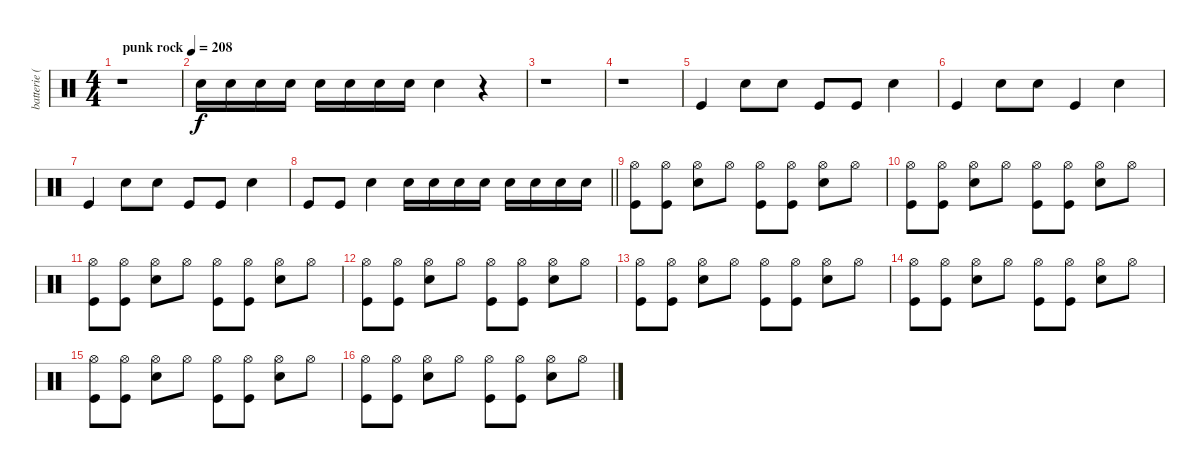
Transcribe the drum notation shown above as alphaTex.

\track ("batterie ( Guillaume ) " "batterie (") {instrument percussion}
\staff {score}
\articulation defaults
\ts (4 4)
\tempo (208 "punk rock")
\clef neutral
\ks c
r.1{dy f} |
"Electric Snare (hit)".16 "Electric Snare (hit)".16 "Electric Snare (hit)".16 "Electric Snare (hit)".16 "Electric Snare (hit)".16 "Electric Snare (hit)".16 "Electric Snare (hit)".16 "Electric Snare (hit)".16 "Electric Snare (hit)".4 r.4 |
r.1 |
r.1 |
"Kick (hit)".4 "Electric Snare (hit)".8 "Electric Snare (hit)".8 "Kick (hit)".8 "Kick (hit)".8 "Electric Snare (hit)".4 |
"Kick (hit)".4 "Electric Snare (hit)".8 "Electric Snare (hit)".8 "Kick (hit)".4 "Electric Snare (hit)".4 |
"Kick (hit)".4 "Electric Snare (hit)".8 "Electric Snare (hit)".8 "Kick (hit)".8 "Kick (hit)".8 "Electric Snare (hit)".4 |
\barLineRight lightlight "Kick (hit)".8 "Kick (hit)".8 "Electric Snare (hit)".4 "Electric Snare (hit)".16 "Electric Snare (hit)".16 "Electric Snare (hit)".16 "Electric Snare (hit)".16 "Electric Snare (hit)".16 "Electric Snare (hit)".16 "Electric Snare (hit)".16 "Electric Snare (hit)".16
|
("Hi-Hat (open)" "Kick (hit)").8 ("Hi-Hat (open)" "Kick (hit)").8 ("Hi-Hat (open)" "Electric Snare (hit)").8 "Hi-Hat (open)".8 ("Hi-Hat (open)" "Kick (hit)").8 ("Hi-Hat (open)" "Kick (hit)").8 ("Hi-Hat (open)" "Electric Snare (hit)").8 "Hi-Hat (open)".8 |
("Hi-Hat (open)" "Kick (hit)").8 ("Hi-Hat (open)" "Kick (hit)").8 ("Hi-Hat (open)" "Electric Snare (hit)").8 "Hi-Hat (open)".8 ("Hi-Hat (open)" "Kick (hit)").8 ("Hi-Hat (open)" "Kick (hit)").8 ("Hi-Hat (open)" "Electric Snare (hit)").8 "Hi-Hat (open)".8 |
("Hi-Hat (open)" "Kick (hit)").8 ("Hi-Hat (open)" "Kick (hit)").8 ("Hi-Hat (open)" "Electric Snare (hit)").8 "Hi-Hat (open)".8 ("Hi-Hat (open)" "Kick (hit)").8 ("Hi-Hat (open)" "Kick (hit)").8 ("Hi-Hat (open)" "Electric Snare (hit)").8 "Hi-Hat (open)".8 |
("Hi-Hat (open)" "Kick (hit)").8 ("Hi-Hat (open)" "Kick (hit)").8 ("Hi-Hat (open)" "Electric Snare (hit)").8 "Hi-Hat (open)".8 ("Hi-Hat (open)" "Kick (hit)").8 ("Hi-Hat (open)" "Kick (hit)").8 ("Hi-Hat (open)" "Electric Snare (hit)").8 "Hi-Hat (open)".8 |
("Hi-Hat (open)" "Kick (hit)").8 ("Hi-Hat (open)" "Kick (hit)").8 ("Hi-Hat (open)" "Electric Snare (hit)").8 "Hi-Hat (open)".8 ("Hi-Hat (open)" "Kick (hit)").8 ("Hi-Hat (open)" "Kick (hit)").8 ("Hi-Hat (open)" "Electric Snare (hit)").8 "Hi-Hat (open)".8 |
("Hi-Hat (open)" "Kick (hit)").8 ("Hi-Hat (open)" "Kick (hit)").8 ("Hi-Hat (open)" "Electric Snare (hit)").8 "Hi-Hat (open)".8 ("Hi-Hat (open)" "Kick (hit)").8 ("Hi-Hat (open)" "Kick (hit)").8 ("Hi-Hat (open)" "Electric Snare (hit)").8 "Hi-Hat (open)".8 |
("Hi-Hat (open)" "Kick (hit)").8 ("Hi-Hat (open)" "Kick (hit)").8 ("Hi-Hat (open)" "Electric Snare (hit)").8 "Hi-Hat (open)".8 ("Hi-Hat (open)" "Kick (hit)").8 ("Hi-Hat (open)" "Kick (hit)").8 ("Hi-Hat (open)" "Electric Snare (hit)").8 "Hi-Hat (open)".8 |
("Hi-Hat (open)" "Kick (hit)").8 ("Hi-Hat (open)" "Kick (hit)").8 ("Hi-Hat (open)" "Electric Snare (hit)").8 "Hi-Hat (open)".8 ("Hi-Hat (open)" "Kick (hit)").8 ("Hi-Hat (open)" "Kick (hit)").8 ("Hi-Hat (open)" "Electric Snare (hit)").8 "Hi-Hat (open)".8
